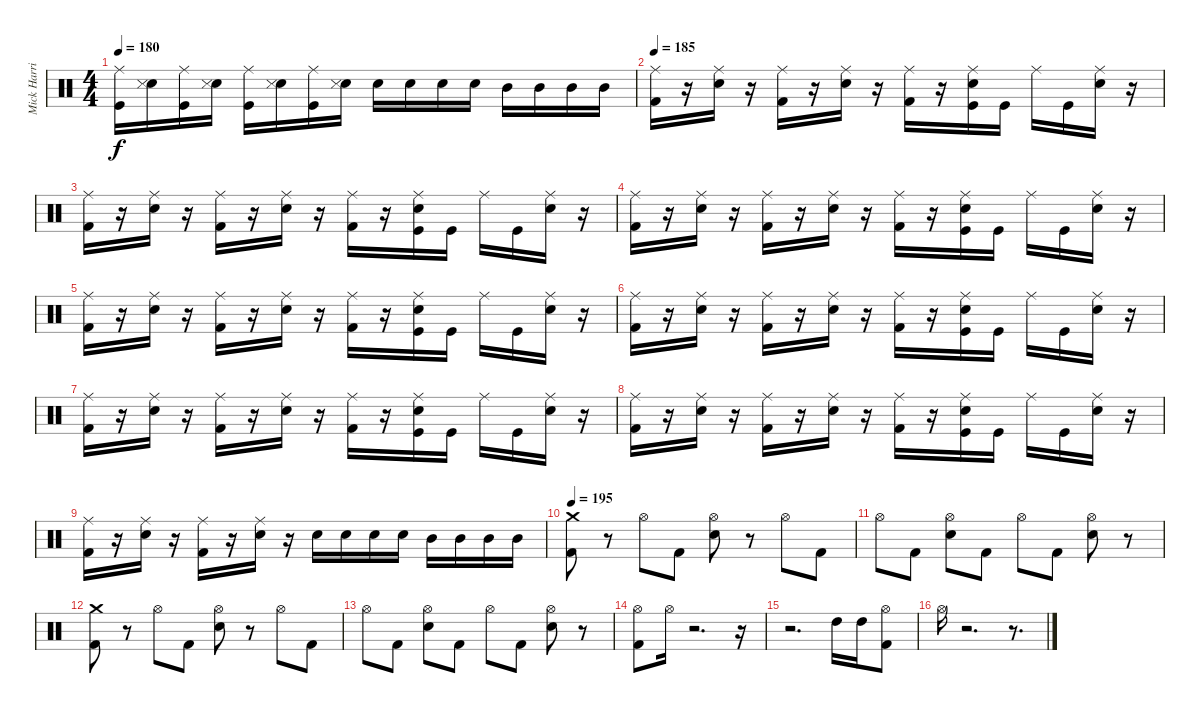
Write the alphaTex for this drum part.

\track ("Mick Harris (Drums)" "Mick Harri") {instrument percussion}
\staff {score}
\articulation defaults
\ts (4 4)
\tempo 180
\clef neutral
\ks c
("Kick (hit)" "Ride (middle)").16{dy f} ("Electric Snare (hit)" "Snare (side stick) 3").16 ("Kick (hit)" "Ride (middle)").16 ("Electric Snare (hit)" "Snare (side stick) 3").16 ("Kick (hit)" "Ride (middle)").16 ("Electric Snare (hit)" "Snare (side stick) 3").16 ("Kick (hit)" "Ride (middle)").16 ("Electric Snare (hit)" "Snare (side stick) 3").16 "Electric Snare (hit)".16 "Electric Snare (hit)".16 "Electric Snare (hit)".16 "Electric Snare (hit)".16 "Mid Tom (hit)".16 "Mid Tom (hit)".16 "Mid Tom (hit)".16 "Mid Tom (hit)".16 |
\tempo 185
("Kick (hit) 2" "Ride (middle)").16 r.16 ("Electric Snare (hit)" "Ride (middle)").16 r.16 ("Kick (hit) 2" "Ride (middle)").16 r.16 ("Electric Snare (hit)" "Ride (middle)").16 r.16 ("Kick (hit) 2" "Ride (middle)").16 r.16 ("Kick (hit)" "Electric Snare (hit)" "Ride (middle)").16 "Kick (hit)".16 "Ride (middle)".16 "Kick (hit)".16 ("Electric Snare (hit)" "Ride (middle)").16 r.16 |
("Kick (hit) 2" "Ride (middle)").16 r.16 ("Electric Snare (hit)" "Ride (middle)").16 r.16 ("Kick (hit) 2" "Ride (middle)").16 r.16 ("Electric Snare (hit)" "Ride (middle)").16 r.16 ("Kick (hit) 2" "Ride (middle)").16 r.16 ("Kick (hit)" "Electric Snare (hit)" "Ride (middle)").16 "Kick (hit)".16 "Ride (middle)".16 "Kick (hit)".16 ("Electric Snare (hit)" "Ride (middle)").16 r.16 |
("Kick (hit) 2" "Ride (middle)").16 r.16 ("Electric Snare (hit)" "Ride (middle)").16 r.16 ("Kick (hit) 2" "Ride (middle)").16 r.16 ("Electric Snare (hit)" "Ride (middle)").16 r.16 ("Kick (hit) 2" "Ride (middle)").16 r.16 ("Kick (hit)" "Electric Snare (hit)" "Ride (middle)").16 "Kick (hit)".16 "Ride (middle)".16 "Kick (hit)".16 ("Electric Snare (hit)" "Ride (middle)").16 r.16 |
("Kick (hit) 2" "Ride (middle)").16 r.16 ("Electric Snare (hit)" "Ride (middle)").16 r.16 ("Kick (hit) 2" "Ride (middle)").16 r.16 ("Electric Snare (hit)" "Ride (middle)").16 r.16 ("Kick (hit) 2" "Ride (middle)").16 r.16 ("Kick (hit)" "Electric Snare (hit)" "Ride (middle)").16 "Kick (hit)".16 "Ride (middle)".16 "Kick (hit)".16 ("Electric Snare (hit)" "Ride (middle)").16 r.16 |
("Kick (hit) 2" "Ride (middle)").16 r.16 ("Electric Snare (hit)" "Ride (middle)").16 r.16 ("Kick (hit) 2" "Ride (middle)").16 r.16 ("Electric Snare (hit)" "Ride (middle)").16 r.16 ("Kick (hit) 2" "Ride (middle)").16 r.16 ("Kick (hit)" "Electric Snare (hit)" "Ride (middle)").16 "Kick (hit)".16 "Ride (middle)".16 "Kick (hit)".16 ("Electric Snare (hit)" "Ride (middle)").16 r.16 |
("Kick (hit) 2" "Ride (middle)").16 r.16 ("Electric Snare (hit)" "Ride (middle)").16 r.16 ("Kick (hit) 2" "Ride (middle)").16 r.16 ("Electric Snare (hit)" "Ride (middle)").16 r.16 ("Kick (hit) 2" "Ride (middle)").16 r.16 ("Kick (hit)" "Electric Snare (hit)" "Ride (middle)").16 "Kick (hit)".16 "Ride (middle)".16 "Kick (hit)".16 ("Electric Snare (hit)" "Ride (middle)").16 r.16 |
("Kick (hit) 2" "Ride (middle)").16 r.16 ("Electric Snare (hit)" "Ride (middle)").16 r.16 ("Kick (hit) 2" "Ride (middle)").16 r.16 ("Electric Snare (hit)" "Ride (middle)").16 r.16 ("Kick (hit) 2" "Ride (middle)").16 r.16 ("Kick (hit)" "Electric Snare (hit)" "Ride (middle)").16 "Kick (hit)".16 "Ride (middle)".16 "Kick (hit)".16 ("Electric Snare (hit)" "Ride (middle)").16 r.16 |
("Kick (hit) 2" "Ride (middle)").16 r.16 ("Electric Snare (hit)" "Ride (middle)").16 r.16 ("Kick (hit) 2" "Ride (middle)").16 r.16 ("Electric Snare (hit)" "Ride (middle)").16 r.16 "Electric Snare (hit)".16 "Electric Snare (hit)".16 "Electric Snare (hit)".16 "Electric Snare (hit)".16 "Mid Tom (hit)".16 "Mid Tom (hit)".16 "Mid Tom (hit)".16 "Mid Tom (hit)".16 |
\tempo 195
("Kick (hit) 2" "Crash medium (hit)").8 r.8 "Hi-Hat (open)".8 "Kick (hit) 2".8 ("Electric Snare (hit)" "Hi-Hat (open)").8 r.8 "Hi-Hat (open)".8 "Kick (hit) 2".8 |
"Hi-Hat (open)".8 "Kick (hit) 2".8 ("Electric Snare (hit)" "Hi-Hat (open)").8 "Kick (hit) 2".8 "Hi-Hat (open)".8 "Kick (hit) 2".8 ("Electric Snare (hit)" "Hi-Hat (open)").8 r.8 |
("Kick (hit) 2" "Crash medium (hit)").8 r.8 "Hi-Hat (open)".8 "Kick (hit) 2".8 ("Electric Snare (hit)" "Hi-Hat (open)").8 r.8 "Hi-Hat (open)".8 "Kick (hit) 2".8 |
"Hi-Hat (open)".8 "Kick (hit) 2".8 ("Electric Snare (hit)" "Hi-Hat (open)").8 "Kick (hit) 2".8 "Hi-Hat (open)".8 "Kick (hit) 2".8 ("Electric Snare (hit)" "Hi-Hat (open)").8 r.8 |
("Kick (hit) 2" "Hi-Hat (open)").8 "Hi-Hat (open)".16{volume 0} r.2{d} r.16 |
r.2{d} "High Tom (hit)".16{volume 16} "High Tom (hit)".16 ("Kick (hit) 2" "Hi-Hat (open)").8 |
"Hi-Hat (open)".16{volume 0} r.2{d} r.8{d}
